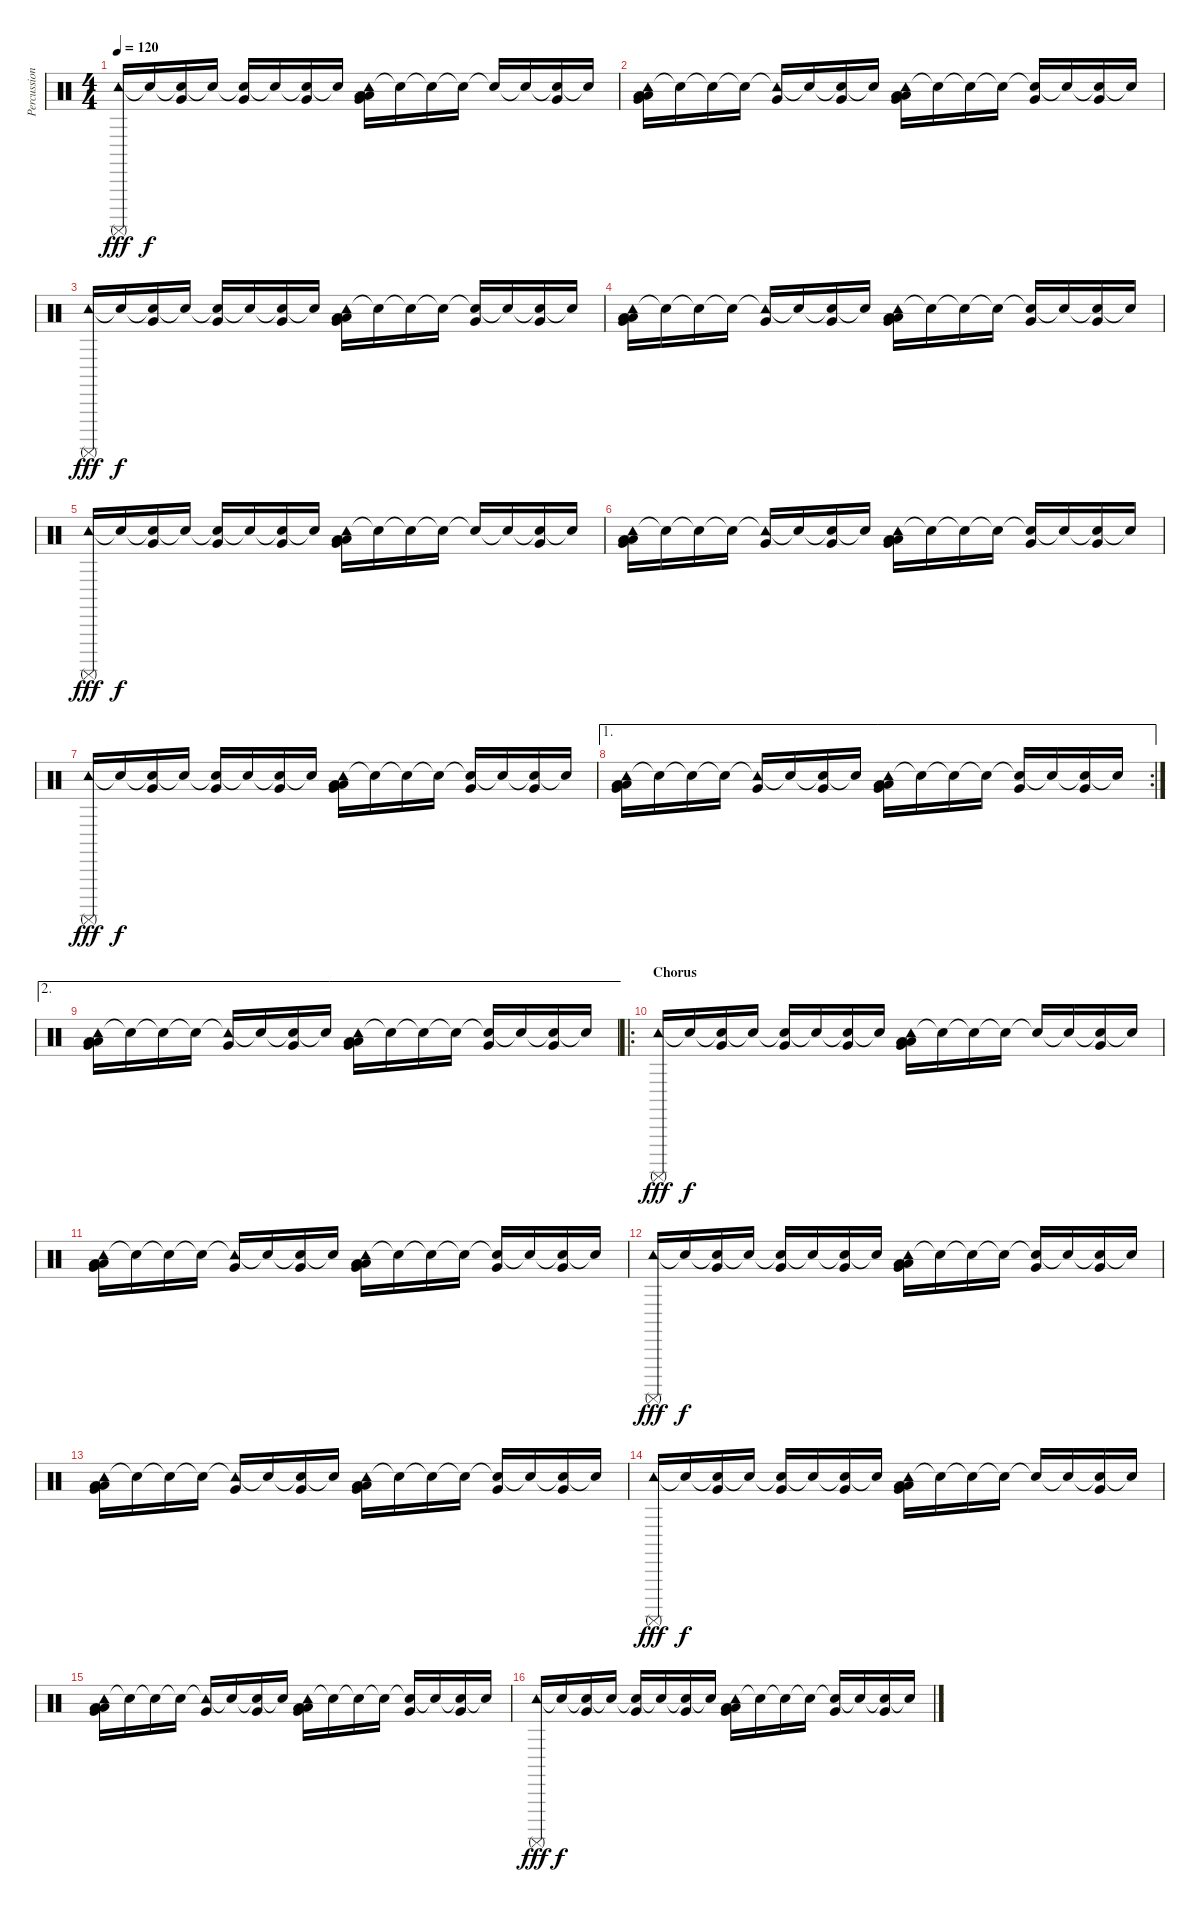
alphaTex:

\track ("Percussion" "Percussion") {instrument percussion}
\staff {score}
\articulation defaults
\ts (4 4)
\tempo 120
\clef neutral
\ks c
("Tambourine (hit)" "Surdo (mute)").16{dy fff} "Snare (hit)"{t}.16{dy f} ("Snare (hit)"{t} "Very Low Tom (hit)").16 "Snare (hit)"{t}.16 ("Snare (hit)"{t} "Very Low Tom (hit)").16 "Snare (hit)"{t}.16 ("Snare (hit)"{t} "Very Low Tom (hit)").16 "Snare (hit)"{t}.16 ("Tambourine (hit)" "Low Floor Tom (hit)" "Very Low Tom (hit)" "Low Tom (hit)").16 "Snare (hit)"{t}.16 "Snare (hit)"{t}.16 "Snare (hit)"{t}.16 "Snare (hit)"{t}.16 "Snare (hit)"{t}.16 ("Snare (hit)"{t} "Very Low Tom (hit)").16 "Snare (hit)"{t}.16 |
("Tambourine (hit)" "Low Floor Tom (hit)" "Very Low Tom (hit)" "Low Tom (hit)").16 "Snare (hit)"{t}.16 "Snare (hit)"{t}.16 "Snare (hit)"{t}.16 ("Tambourine (hit)"{t} "Very Low Tom (hit)").16 "Snare (hit)"{t}.16 ("Snare (hit)"{t} "Very Low Tom (hit)").16 "Snare (hit)"{t}.16 ("Tambourine (hit)" "Low Floor Tom (hit)" "Very Low Tom (hit)" "Low Tom (hit)").16 "Snare (hit)"{t}.16 "Snare (hit)"{t}.16 "Snare (hit)"{t}.16 ("Snare (hit)"{t} "Very Low Tom (hit)").16 "Snare (hit)"{t}.16 ("Snare (hit)"{t} "Very Low Tom (hit)").16 "Snare (hit)"{t}.16 |
("Tambourine (hit)" "Surdo (mute)").16{dy fff} "Snare (hit)"{t}.16{dy f} ("Snare (hit)"{t} "Very Low Tom (hit)").16 "Snare (hit)"{t}.16 ("Snare (hit)"{t} "Very Low Tom (hit)").16 "Snare (hit)"{t}.16 ("Snare (hit)"{t} "Very Low Tom (hit)").16 "Snare (hit)"{t}.16 ("Tambourine (hit)" "Low Floor Tom (hit)" "Very Low Tom (hit)" "Low Tom (hit)").16 "Snare (hit)"{t}.16 "Snare (hit)"{t}.16 "Snare (hit)"{t}.16 ("Snare (hit)"{t} "Very Low Tom (hit)").16 "Snare (hit)"{t}.16 ("Snare (hit)"{t} "Very Low Tom (hit)").16 "Snare (hit)"{t}.16 |
("Tambourine (hit)" "Low Floor Tom (hit)" "Very Low Tom (hit)" "Low Tom (hit)").16 "Snare (hit)"{t}.16 "Snare (hit)"{t}.16 "Snare (hit)"{t}.16 ("Tambourine (hit)"{t} "Very Low Tom (hit)").16 "Snare (hit)"{t}.16 ("Snare (hit)"{t} "Very Low Tom (hit)").16 "Snare (hit)"{t}.16 ("Tambourine (hit)" "Low Floor Tom (hit)" "Very Low Tom (hit)" "Low Tom (hit)").16 "Snare (hit)"{t}.16 "Snare (hit)"{t}.16 "Snare (hit)"{t}.16 ("Snare (hit)"{t} "Very Low Tom (hit)").16 "Snare (hit)"{t}.16 ("Snare (hit)"{t} "Very Low Tom (hit)").16 "Snare (hit)"{t}.16 |
("Tambourine (hit)" "Surdo (mute)").16{dy fff} "Snare (hit)"{t}.16{dy f} ("Snare (hit)"{t} "Very Low Tom (hit)").16 "Snare (hit)"{t}.16 ("Snare (hit)"{t} "Very Low Tom (hit)").16 "Snare (hit)"{t}.16 ("Snare (hit)"{t} "Very Low Tom (hit)").16 "Snare (hit)"{t}.16 ("Tambourine (hit)" "Low Floor Tom (hit)" "Very Low Tom (hit)" "Low Tom (hit)").16 "Snare (hit)"{t}.16 "Snare (hit)"{t}.16 "Snare (hit)"{t}.16 "Snare (hit)"{t}.16 "Snare (hit)"{t}.16 ("Snare (hit)"{t} "Very Low Tom (hit)").16 "Snare (hit)"{t}.16 |
("Tambourine (hit)" "Low Floor Tom (hit)" "Very Low Tom (hit)" "Low Tom (hit)").16 "Snare (hit)"{t}.16 "Snare (hit)"{t}.16 "Snare (hit)"{t}.16 ("Tambourine (hit)"{t} "Very Low Tom (hit)").16 "Snare (hit)"{t}.16 ("Snare (hit)"{t} "Very Low Tom (hit)").16 "Snare (hit)"{t}.16 ("Tambourine (hit)" "Low Floor Tom (hit)" "Very Low Tom (hit)" "Low Tom (hit)").16 "Snare (hit)"{t}.16 "Snare (hit)"{t}.16 "Snare (hit)"{t}.16 ("Snare (hit)"{t} "Very Low Tom (hit)").16 "Snare (hit)"{t}.16 ("Snare (hit)"{t} "Very Low Tom (hit)").16 "Snare (hit)"{t}.16 |
("Tambourine (hit)" "Surdo (mute)").16{dy fff} "Snare (hit)"{t}.16{dy f} ("Snare (hit)"{t} "Very Low Tom (hit)").16 "Snare (hit)"{t}.16 ("Snare (hit)"{t} "Very Low Tom (hit)").16 "Snare (hit)"{t}.16 ("Snare (hit)"{t} "Very Low Tom (hit)").16 "Snare (hit)"{t}.16 ("Tambourine (hit)" "Low Floor Tom (hit)" "Very Low Tom (hit)" "Low Tom (hit)").16 "Snare (hit)"{t}.16 "Snare (hit)"{t}.16 "Snare (hit)"{t}.16 ("Snare (hit)"{t} "Very Low Tom (hit)").16 "Snare (hit)"{t}.16 ("Snare (hit)"{t} "Very Low Tom (hit)").16 "Snare (hit)"{t}.16 |
\ae 1
\rc 2
("Tambourine (hit)" "Low Floor Tom (hit)" "Very Low Tom (hit)" "Low Tom (hit)").16 "Snare (hit)"{t}.16 "Snare (hit)"{t}.16 "Snare (hit)"{t}.16 ("Tambourine (hit)"{t} "Very Low Tom (hit)").16 "Snare (hit)"{t}.16 ("Snare (hit)"{t} "Very Low Tom (hit)").16 "Snare (hit)"{t}.16 ("Tambourine (hit)" "Low Floor Tom (hit)" "Very Low Tom (hit)" "Low Tom (hit)").16 "Snare (hit)"{t}.16 "Snare (hit)"{t}.16 "Snare (hit)"{t}.16 ("Snare (hit)"{t} "Very Low Tom (hit)").16 "Snare (hit)"{t}.16 ("Snare (hit)"{t} "Very Low Tom (hit)").16 "Snare (hit)"{t}.16 |
\ae 2
("Tambourine (hit)" "Low Floor Tom (hit)" "Very Low Tom (hit)" "Low Tom (hit)").16 "Snare (hit)"{t}.16 "Snare (hit)"{t}.16 "Snare (hit)"{t}.16 ("Tambourine (hit)"{t} "Very Low Tom (hit)").16 "Snare (hit)"{t}.16 ("Snare (hit)"{t} "Very Low Tom (hit)").16 "Snare (hit)"{t}.16 ("Tambourine (hit)" "Low Floor Tom (hit)" "Very Low Tom (hit)" "Low Tom (hit)").16 "Snare (hit)"{t}.16 "Snare (hit)"{t}.16 "Snare (hit)"{t}.16 ("Snare (hit)"{t} "Very Low Tom (hit)").16 "Snare (hit)"{t}.16 ("Snare (hit)"{t} "Very Low Tom (hit)").16 "Snare (hit)"{t}.16 |
\ro
\section ("" "Chorus")
("Tambourine (hit)" "Surdo (mute)").16{dy fff} "Snare (hit)"{t}.16{dy f} ("Snare (hit)"{t} "Very Low Tom (hit)").16 "Snare (hit)"{t}.16 ("Snare (hit)"{t} "Very Low Tom (hit)").16 "Snare (hit)"{t}.16 ("Snare (hit)"{t} "Very Low Tom (hit)").16 "Snare (hit)"{t}.16 ("Tambourine (hit)" "Low Floor Tom (hit)" "Very Low Tom (hit)" "Low Tom (hit)").16 "Snare (hit)"{t}.16 "Snare (hit)"{t}.16 "Snare (hit)"{t}.16 "Snare (hit)"{t}.16 "Snare (hit)"{t}.16 ("Snare (hit)"{t} "Very Low Tom (hit)").16 "Snare (hit)"{t}.16 |
("Tambourine (hit)" "Low Floor Tom (hit)" "Very Low Tom (hit)" "Low Tom (hit)").16 "Snare (hit)"{t}.16 "Snare (hit)"{t}.16 "Snare (hit)"{t}.16 ("Tambourine (hit)"{t} "Very Low Tom (hit)").16 "Snare (hit)"{t}.16 ("Snare (hit)"{t} "Very Low Tom (hit)").16 "Snare (hit)"{t}.16 ("Tambourine (hit)" "Low Floor Tom (hit)" "Very Low Tom (hit)" "Low Tom (hit)").16 "Snare (hit)"{t}.16 "Snare (hit)"{t}.16 "Snare (hit)"{t}.16 ("Snare (hit)"{t} "Very Low Tom (hit)").16 "Snare (hit)"{t}.16 ("Snare (hit)"{t} "Very Low Tom (hit)").16 "Snare (hit)"{t}.16 |
("Tambourine (hit)" "Surdo (mute)").16{dy fff} "Snare (hit)"{t}.16{dy f} ("Snare (hit)"{t} "Very Low Tom (hit)").16 "Snare (hit)"{t}.16 ("Snare (hit)"{t} "Very Low Tom (hit)").16 "Snare (hit)"{t}.16 ("Snare (hit)"{t} "Very Low Tom (hit)").16 "Snare (hit)"{t}.16 ("Tambourine (hit)" "Low Floor Tom (hit)" "Very Low Tom (hit)" "Low Tom (hit)").16 "Snare (hit)"{t}.16 "Snare (hit)"{t}.16 "Snare (hit)"{t}.16 ("Snare (hit)"{t} "Very Low Tom (hit)").16 "Snare (hit)"{t}.16 ("Snare (hit)"{t} "Very Low Tom (hit)").16 "Snare (hit)"{t}.16 |
("Tambourine (hit)" "Low Floor Tom (hit)" "Very Low Tom (hit)" "Low Tom (hit)").16 "Snare (hit)"{t}.16 "Snare (hit)"{t}.16 "Snare (hit)"{t}.16 ("Tambourine (hit)"{t} "Very Low Tom (hit)").16 "Snare (hit)"{t}.16 ("Snare (hit)"{t} "Very Low Tom (hit)").16 "Snare (hit)"{t}.16 ("Tambourine (hit)" "Low Floor Tom (hit)" "Very Low Tom (hit)" "Low Tom (hit)").16 "Snare (hit)"{t}.16 "Snare (hit)"{t}.16 "Snare (hit)"{t}.16 ("Snare (hit)"{t} "Very Low Tom (hit)").16 "Snare (hit)"{t}.16 ("Snare (hit)"{t} "Very Low Tom (hit)").16 "Snare (hit)"{t}.16 |
("Tambourine (hit)" "Surdo (mute)").16{dy fff} "Snare (hit)"{t}.16{dy f} ("Snare (hit)"{t} "Very Low Tom (hit)").16 "Snare (hit)"{t}.16 ("Snare (hit)"{t} "Very Low Tom (hit)").16 "Snare (hit)"{t}.16 ("Snare (hit)"{t} "Very Low Tom (hit)").16 "Snare (hit)"{t}.16 ("Tambourine (hit)" "Low Floor Tom (hit)" "Very Low Tom (hit)" "Low Tom (hit)").16 "Snare (hit)"{t}.16 "Snare (hit)"{t}.16 "Snare (hit)"{t}.16 "Snare (hit)"{t}.16 "Snare (hit)"{t}.16 ("Snare (hit)"{t} "Very Low Tom (hit)").16 "Snare (hit)"{t}.16 |
("Tambourine (hit)" "Low Floor Tom (hit)" "Very Low Tom (hit)" "Low Tom (hit)").16 "Snare (hit)"{t}.16 "Snare (hit)"{t}.16 "Snare (hit)"{t}.16 ("Tambourine (hit)"{t} "Very Low Tom (hit)").16 "Snare (hit)"{t}.16 ("Snare (hit)"{t} "Very Low Tom (hit)").16 "Snare (hit)"{t}.16 ("Tambourine (hit)" "Low Floor Tom (hit)" "Very Low Tom (hit)" "Low Tom (hit)").16 "Snare (hit)"{t}.16 "Snare (hit)"{t}.16 "Snare (hit)"{t}.16 ("Snare (hit)"{t} "Very Low Tom (hit)").16 "Snare (hit)"{t}.16 ("Snare (hit)"{t} "Very Low Tom (hit)").16 "Snare (hit)"{t}.16 |
("Tambourine (hit)" "Surdo (mute)").16{dy fff} "Snare (hit)"{t}.16{dy f} ("Snare (hit)"{t} "Very Low Tom (hit)").16 "Snare (hit)"{t}.16 ("Snare (hit)"{t} "Very Low Tom (hit)").16 "Snare (hit)"{t}.16 ("Snare (hit)"{t} "Very Low Tom (hit)").16 "Snare (hit)"{t}.16 ("Tambourine (hit)" "Low Floor Tom (hit)" "Very Low Tom (hit)" "Low Tom (hit)").16 "Snare (hit)"{t}.16 "Snare (hit)"{t}.16 "Snare (hit)"{t}.16 ("Snare (hit)"{t} "Very Low Tom (hit)").16 "Snare (hit)"{t}.16 ("Snare (hit)"{t} "Very Low Tom (hit)").16 "Snare (hit)"{t}.16
